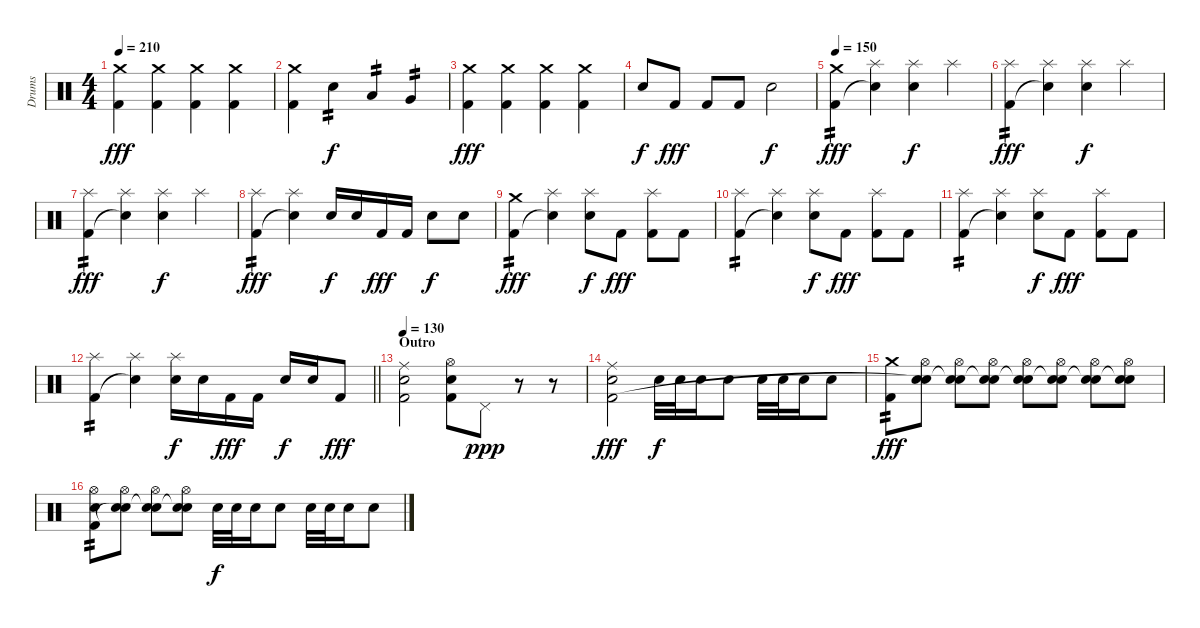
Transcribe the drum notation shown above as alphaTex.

\track ("Drums" "Drums") {instrument percussion}
\staff {score}
\articulation defaults
\ts (4 4)
\tempo 210
\clef neutral
\ks c
("Crash medium (hit)" "Kick (hit) 2").4{dy fff} ("Crash medium (hit)" "Kick (hit) 2").4 ("Crash medium (hit)" "Kick (hit) 2").4 ("Crash medium (hit)" "Kick (hit) 2").4 |
("Crash medium (hit)" "Kick (hit) 2").4 "Electric Snare (hit)".4{tp 2 dy f} "Low Tom (hit)".4{tp 2} "Very Low Tom (hit)".4{tp 2} |
("Crash medium (hit)" "Kick (hit) 2").4{dy fff} ("Crash medium (hit)" "Kick (hit) 2").4 ("Crash medium (hit)" "Kick (hit) 2").4 ("Crash medium (hit)" "Kick (hit) 2").4 |
"Electric Snare (hit)".8{dy f} "Kick (hit) 2".8{dy fff} "Kick (hit) 2".8 "Kick (hit) 2".8 "Electric Snare (hit)".2{dy f} |
\tempo 150
("Crash medium (hit)" "Kick (hit) 2").4{tp 2 dy fff} ("Splash (hit)" "Snare (hit)"{t}).4 ("Splash (hit)" "Electric Snare (hit)").4{dy f} "Splash (hit)".4 |
("Splash (hit)" "Kick (hit) 2").4{tp 2 dy fff} ("Splash (hit)" "Snare (hit)"{t}).4 ("Splash (hit)" "Electric Snare (hit)").4{dy f} "Splash (hit)".4 |
("Splash (hit)" "Kick (hit) 2").4{tp 2 dy fff} ("Splash (hit)" "Snare (hit)"{t}).4 ("Splash (hit)" "Electric Snare (hit)").4{dy f} "Splash (hit)".4 |
("Splash (hit)" "Kick (hit) 2").4{tp 2 dy fff} ("Splash (hit)" "Snare (hit)"{t}).4 "Electric Snare (hit)".16{dy f} "Electric Snare (hit)".16 "Kick (hit) 2".16{dy fff} "Kick (hit) 2".16 "Electric Snare (hit)".8{dy f} "Electric Snare (hit)".8 |
("Crash medium (hit)" "Kick (hit) 2").4{tp 2 dy fff} ("Splash (hit)" "Snare (hit)"{t}).4 ("Splash (hit)" "Electric Snare (hit)").8{dy f} "Kick (hit) 2".8{dy fff} ("Splash (hit)" "Kick (hit) 2").8 "Kick (hit) 2".8 |
("Splash (hit)" "Kick (hit) 2").4{tp 2} ("Splash (hit)" "Snare (hit)"{t}).4 ("Splash (hit)" "Electric Snare (hit)").8{dy f} "Kick (hit) 2".8{dy fff} ("Splash (hit)" "Kick (hit) 2").8 "Kick (hit) 2".8 |
("Splash (hit)" "Kick (hit) 2").4{tp 2} ("Splash (hit)" "Snare (hit)"{t}).4 ("Splash (hit)" "Electric Snare (hit)").8{dy f} "Kick (hit) 2".8{dy fff} ("Splash (hit)" "Kick (hit) 2").8 "Kick (hit) 2".8 |
\barLineRight lightlight
("Splash (hit)" "Kick (hit) 2").4{tp 2} ("Splash (hit)" "Snare (hit)"{t}).4 ("Splash (hit)" "Electric Snare (hit)").16{dy f} "Electric Snare (hit)".16 "Kick (hit) 2".16{dy fff} "Kick (hit) 2".16 "Electric Snare (hit)".16{dy f} "Electric Snare (hit)".16 "Kick (hit) 2".8{dy fff} |
\section ("" "Outro")
\tempo 130
("Ride (middle)" "Electric Snare (hit)" "Kick (hit) 2").2 ("Hi-Hat (open)" "Electric Snare (hit)" "Kick (hit) 2").8 "Pedal Hi-Hat (hit)".8{dy ppp} r.8 r.8 |
("Ride (middle)" "Electric Snare (hit)" "Kick (hit) 2").2{dy fff} "Electric Snare (hit)".32{dy f} "Electric Snare (hit)".32 "Electric Snare (hit)".16 "Electric Snare (hit)".8 "Electric Snare (hit)".32 "Electric Snare (hit)".32 "Electric Snare (hit)".16 "Electric Snare (hit)".8 |
("Crash medium (hit)" "Kick (hit) 2").8{tp 2 dy fff} ("Hi-Hat (open)" "Electric Snare (hit)" "Snare (hit)"{t}).8 ("Hi-Hat (open)" "Electric Snare (hit)" "Snare (hit)"{t}).8 ("Hi-Hat (open)" "Electric Snare (hit)" "Snare (hit)"{t}).8 ("Hi-Hat (open)" "Electric Snare (hit)" "Snare (hit)"{t}).8 ("Hi-Hat (open)" "Electric Snare (hit)" "Snare (hit)"{t}).8 ("Hi-Hat (open)" "Electric Snare (hit)" "Snare (hit)"{t}).8 ("Hi-Hat (open)" "Electric Snare (hit)" "Snare (hit)"{t}).8 |
("Hi-Hat (open)" "Electric Snare (hit)" "Kick (hit) 2").8{tp 2} ("Hi-Hat (open)" "Electric Snare (hit)" "Snare (hit)"{t}).8 ("Hi-Hat (open)" "Electric Snare (hit)" "Snare (hit)"{t}).8 ("Hi-Hat (open)" "Electric Snare (hit)" "Snare (hit)"{t}).8 "Electric Snare (hit)".32{dy f} "Electric Snare (hit)".32 "Electric Snare (hit)".16 "Electric Snare (hit)".8 "Electric Snare (hit)".32 "Electric Snare (hit)".32 "Electric Snare (hit)".16 "Electric Snare (hit)".8
